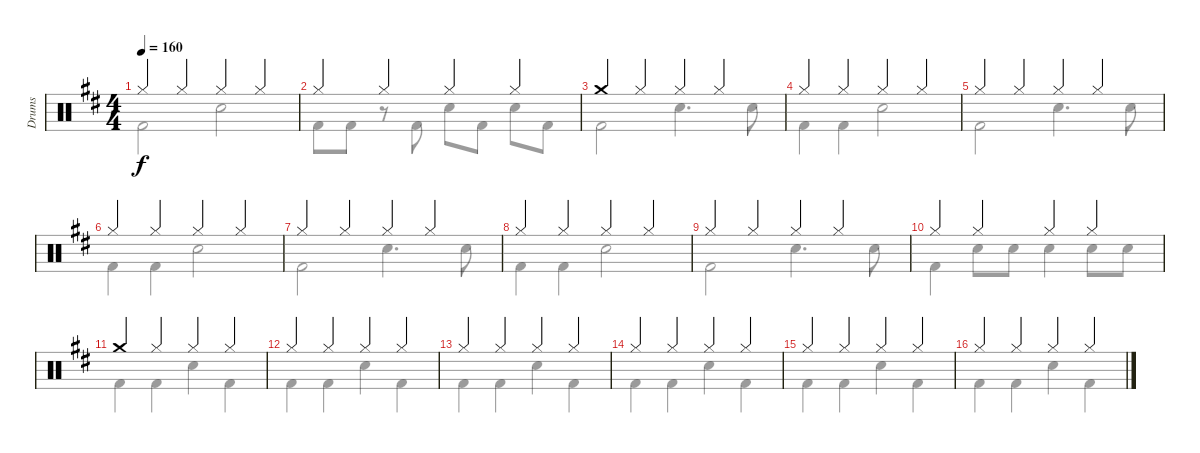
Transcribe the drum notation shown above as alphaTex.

\track ("Drums" "Drums") {instrument percussion}
\staff {score}
\articulation defaults
\voice
\ts (4 4)
\tempo 160
\clef neutral
\ks d "Hi-Hat (closed)".4{dy f} "Hi-Hat (closed)".4 "Hi-Hat (closed)".4 "Hi-Hat (closed)".4
|
"Hi-Hat (closed)".4 "Hi-Hat (closed)".4 "Hi-Hat (closed)".4 "Hi-Hat (closed)".4 |
"Crash medium (hit)".4 "Hi-Hat (closed)".4 "Hi-Hat (closed)".4 "Hi-Hat (closed)".4 |
"Hi-Hat (closed)".4 "Hi-Hat (closed)".4 "Hi-Hat (closed)".4 "Hi-Hat (closed)".4 |
"Hi-Hat (closed)".4 "Hi-Hat (closed)".4 "Hi-Hat (closed)".4 "Hi-Hat (closed)".4 |
"Hi-Hat (closed)".4 "Hi-Hat (closed)".4 "Hi-Hat (closed)".4 "Hi-Hat (closed)".4 |
"Hi-Hat (closed)".4 "Hi-Hat (closed)".4 "Hi-Hat (closed)".4 "Hi-Hat (closed)".4 |
"Hi-Hat (closed)".4 "Hi-Hat (closed)".4 "Hi-Hat (closed)".4 "Hi-Hat (closed)".4 |
"Hi-Hat (closed)".4 "Hi-Hat (closed)".4 "Hi-Hat (closed)".4 "Hi-Hat (closed)".4 |
"Hi-Hat (closed)".4 "Hi-Hat (closed)".4 "Hi-Hat (closed)".4 "Hi-Hat (closed)".4 |
"Crash medium (hit)".4 "Hi-Hat (closed)".4 "Hi-Hat (closed)".4 "Hi-Hat (closed)".4 |
"Hi-Hat (closed)".4 "Hi-Hat (closed)".4 "Hi-Hat (closed)".4 "Hi-Hat (closed)".4 |
"Hi-Hat (closed)".4 "Hi-Hat (closed)".4 "Hi-Hat (closed)".4 "Hi-Hat (closed)".4 |
"Hi-Hat (closed)".4 "Hi-Hat (closed)".4 "Hi-Hat (closed)".4 "Hi-Hat (closed)".4 |
"Hi-Hat (closed)".4 "Hi-Hat (closed)".4 "Hi-Hat (closed)".4 "Hi-Hat (closed)".4 |
"Hi-Hat (closed)".4 "Hi-Hat (closed)".4 "Hi-Hat (closed)".4 "Hi-Hat (closed)".4
\voice
\clef neutral
\ottava regular
\simile none
\ks d "Kick (hit) 2".2{dy f} "Snare (hit) 2".2
|
"Kick (hit) 2".8 "Kick (hit) 2".8 r.8 "Kick (hit) 2".8 "Snare (hit) 2".8 "Kick (hit) 2".8 "Snare (hit) 2".8 "Kick (hit) 2".8 |
"Kick (hit) 2".2 "Snare (hit) 2".4{d} "Snare (hit) 2".8 |
"Kick (hit) 2".4 "Kick (hit) 2".4 "Snare (hit) 2".2 |
"Kick (hit) 2".2 "Snare (hit) 2".4{d} "Snare (hit) 2".8 |
"Kick (hit) 2".4 "Kick (hit) 2".4 "Snare (hit) 2".2 |
"Kick (hit) 2".2 "Snare (hit) 2".4{d} "Snare (hit) 2".8 |
"Kick (hit) 2".4 "Kick (hit) 2".4 "Snare (hit) 2".2 |
"Kick (hit) 2".2 "Snare (hit) 2".4{d} "Snare (hit) 2".8 |
"Kick (hit) 2".4 "Snare (hit) 2".8 "Snare (hit) 2".8 "Snare (hit) 2".4 "Snare (hit) 2".8 "Snare (hit) 2".8 |
"Kick (hit) 2".4 "Kick (hit) 2".4 "Snare (hit) 2".4 "Kick (hit) 2".4 |
"Kick (hit) 2".4 "Kick (hit) 2".4 "Snare (hit) 2".4 "Kick (hit) 2".4 |
"Kick (hit) 2".4 "Kick (hit) 2".4 "Snare (hit) 2".4 "Kick (hit) 2".4 |
"Kick (hit) 2".4 "Kick (hit) 2".4 "Snare (hit) 2".4 "Kick (hit) 2".4 |
"Kick (hit) 2".4 "Kick (hit) 2".4 "Snare (hit) 2".4 "Kick (hit) 2".4 |
"Kick (hit) 2".4 "Kick (hit) 2".4 "Snare (hit) 2".4 "Kick (hit) 2".4
